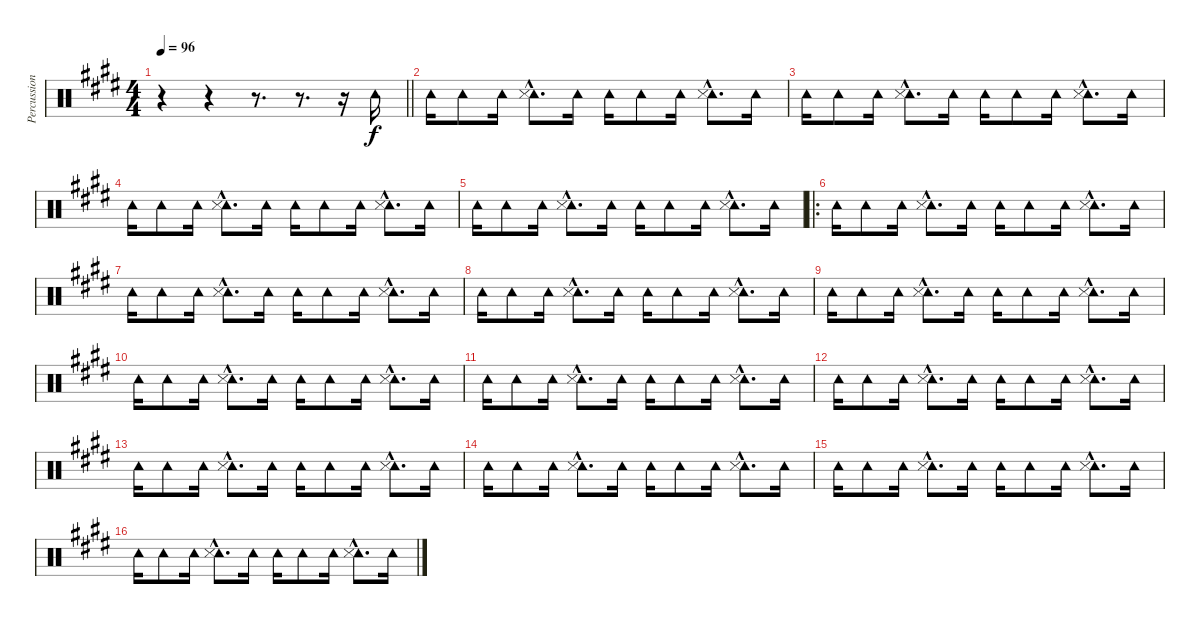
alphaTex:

\track ("Percussions" "Percussion") {instrument percussion}
\staff {score}
\articulation defaults
\ts (4 4)
\tempo 96
\clef neutral
\barLineRight lightlight
\ks e
r.4{dy f} r.4 r.8{d} r.8{d} r.16 "Tambourine (hit)".16 |
"Tambourine (hit)".16 "Tambourine (hit)".8 "Tambourine (hit)".16 ("Tambourine (hit)"{hac} "Snare (side stick) 3"{hac}).8{d} "Tambourine (hit)".16 "Tambourine (hit)".16 "Tambourine (hit)".8 "Tambourine (hit)".16 ("Tambourine (hit)"{hac} "Snare (side stick) 3"{hac}).8{d} "Tambourine (hit)".16 |
"Tambourine (hit)".16 "Tambourine (hit)".8 "Tambourine (hit)".16 ("Tambourine (hit)"{hac} "Snare (side stick) 3"{hac}).8{d} "Tambourine (hit)".16 "Tambourine (hit)".16 "Tambourine (hit)".8 "Tambourine (hit)".16 ("Tambourine (hit)"{hac} "Snare (side stick) 3"{hac}).8{d} "Tambourine (hit)".16 |
"Tambourine (hit)".16 "Tambourine (hit)".8 "Tambourine (hit)".16 ("Tambourine (hit)"{hac} "Snare (side stick) 3"{hac}).8{d} "Tambourine (hit)".16 "Tambourine (hit)".16 "Tambourine (hit)".8 "Tambourine (hit)".16 ("Tambourine (hit)"{hac} "Snare (side stick) 3"{hac}).8{d} "Tambourine (hit)".16 |
"Tambourine (hit)".16 "Tambourine (hit)".8 "Tambourine (hit)".16 ("Tambourine (hit)"{hac} "Snare (side stick) 3"{hac}).8{d} "Tambourine (hit)".16 "Tambourine (hit)".16 "Tambourine (hit)".8 "Tambourine (hit)".16 ("Tambourine (hit)"{hac} "Snare (side stick) 3"{hac}).8{d} "Tambourine (hit)".16 |
\ro "Tambourine (hit)".16 "Tambourine (hit)".8 "Tambourine (hit)".16
("Tambourine (hit)"{hac} "Snare (side stick) 3"{hac}).8{d} "Tambourine (hit)".16 "Tambourine (hit)".16 "Tambourine (hit)".8 "Tambourine (hit)".16 ("Tambourine (hit)"{hac} "Snare (side stick) 3"{hac}).8{d} "Tambourine (hit)".16 |
"Tambourine (hit)".16 "Tambourine (hit)".8 "Tambourine (hit)".16 ("Tambourine (hit)"{hac} "Snare (side stick) 3"{hac}).8{d} "Tambourine (hit)".16 "Tambourine (hit)".16 "Tambourine (hit)".8 "Tambourine (hit)".16 ("Tambourine (hit)"{hac} "Snare (side stick) 3"{hac}).8{d} "Tambourine (hit)".16 |
"Tambourine (hit)".16 "Tambourine (hit)".8 "Tambourine (hit)".16 ("Tambourine (hit)"{hac} "Snare (side stick) 3"{hac}).8{d} "Tambourine (hit)".16 "Tambourine (hit)".16 "Tambourine (hit)".8 "Tambourine (hit)".16 ("Tambourine (hit)"{hac} "Snare (side stick) 3"{hac}).8{d} "Tambourine (hit)".16 |
"Tambourine (hit)".16 "Tambourine (hit)".8 "Tambourine (hit)".16 ("Tambourine (hit)"{hac} "Snare (side stick) 3"{hac}).8{d} "Tambourine (hit)".16 "Tambourine (hit)".16 "Tambourine (hit)".8 "Tambourine (hit)".16 ("Tambourine (hit)"{hac} "Snare (side stick) 3"{hac}).8{d} "Tambourine (hit)".16 |
"Tambourine (hit)".16 "Tambourine (hit)".8 "Tambourine (hit)".16 ("Tambourine (hit)"{hac} "Snare (side stick) 3"{hac}).8{d} "Tambourine (hit)".16 "Tambourine (hit)".16 "Tambourine (hit)".8 "Tambourine (hit)".16 ("Tambourine (hit)"{hac} "Snare (side stick) 3"{hac}).8{d} "Tambourine (hit)".16 |
"Tambourine (hit)".16 "Tambourine (hit)".8 "Tambourine (hit)".16 ("Tambourine (hit)"{hac} "Snare (side stick) 3"{hac}).8{d} "Tambourine (hit)".16 "Tambourine (hit)".16 "Tambourine (hit)".8 "Tambourine (hit)".16 ("Tambourine (hit)"{hac} "Snare (side stick) 3"{hac}).8{d} "Tambourine (hit)".16 |
"Tambourine (hit)".16 "Tambourine (hit)".8 "Tambourine (hit)".16 ("Tambourine (hit)"{hac} "Snare (side stick) 3"{hac}).8{d} "Tambourine (hit)".16 "Tambourine (hit)".16 "Tambourine (hit)".8 "Tambourine (hit)".16 ("Tambourine (hit)"{hac} "Snare (side stick) 3"{hac}).8{d} "Tambourine (hit)".16 |
"Tambourine (hit)".16 "Tambourine (hit)".8 "Tambourine (hit)".16 ("Tambourine (hit)"{hac} "Snare (side stick) 3"{hac}).8{d} "Tambourine (hit)".16 "Tambourine (hit)".16 "Tambourine (hit)".8 "Tambourine (hit)".16 ("Tambourine (hit)"{hac} "Snare (side stick) 3"{hac}).8{d} "Tambourine (hit)".16 |
"Tambourine (hit)".16 "Tambourine (hit)".8 "Tambourine (hit)".16 ("Tambourine (hit)"{hac} "Snare (side stick) 3"{hac}).8{d} "Tambourine (hit)".16 "Tambourine (hit)".16 "Tambourine (hit)".8 "Tambourine (hit)".16 ("Tambourine (hit)"{hac} "Snare (side stick) 3"{hac}).8{d} "Tambourine (hit)".16 |
"Tambourine (hit)".16 "Tambourine (hit)".8 "Tambourine (hit)".16 ("Tambourine (hit)"{hac} "Snare (side stick) 3"{hac}).8{d} "Tambourine (hit)".16 "Tambourine (hit)".16 "Tambourine (hit)".8 "Tambourine (hit)".16 ("Tambourine (hit)"{hac} "Snare (side stick) 3"{hac}).8{d} "Tambourine (hit)".16 |
"Tambourine (hit)".16 "Tambourine (hit)".8 "Tambourine (hit)".16 ("Tambourine (hit)"{hac} "Snare (side stick) 3"{hac}).8{d} "Tambourine (hit)".16 "Tambourine (hit)".16 "Tambourine (hit)".8 "Tambourine (hit)".16 ("Tambourine (hit)"{hac} "Snare (side stick) 3"{hac}).8{d} "Tambourine (hit)".16
